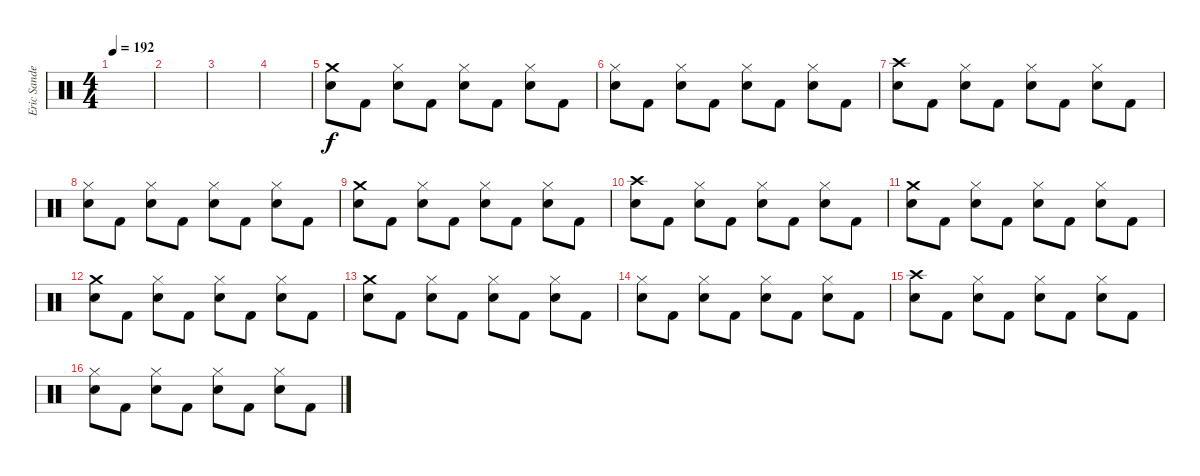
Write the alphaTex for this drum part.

\track ("Eric Sanden" "Eric Sande") {instrument percussion}
\staff {score}
\articulation defaults
\ts (4 4)
\tempo 192
\clef neutral
\ks c
|
|
|
|
("Crash medium (hit)" "Snare (hit) 2").8 "Kick (hit) 2".8 ("Hi-Hat (closed)" "Snare (hit) 2").8 "Kick (hit) 2".8 ("Hi-Hat (closed)" "Snare (hit) 2").8 "Kick (hit) 2".8 ("Hi-Hat (closed)" "Snare (hit) 2").8 "Kick (hit) 2".8 |
("Hi-Hat (closed)" "Snare (hit) 2").8 "Kick (hit) 2".8 ("Hi-Hat (closed)" "Snare (hit) 2").8 "Kick (hit) 2".8 ("Hi-Hat (closed)" "Snare (hit) 2").8 "Kick (hit) 2".8 ("Hi-Hat (closed)" "Snare (hit) 2").8 "Kick (hit) 2".8 |
("Crash high (hit)" "Snare (hit) 2").8 "Kick (hit) 2".8 ("Hi-Hat (closed)" "Snare (hit) 2").8 "Kick (hit) 2".8 ("Hi-Hat (closed)" "Snare (hit) 2").8 "Kick (hit) 2".8 ("Hi-Hat (closed)" "Snare (hit) 2").8 "Kick (hit) 2".8 |
("Hi-Hat (closed)" "Snare (hit) 2").8 "Kick (hit) 2".8 ("Hi-Hat (closed)" "Snare (hit) 2").8 "Kick (hit) 2".8 ("Hi-Hat (closed)" "Snare (hit) 2").8 "Kick (hit) 2".8 ("Hi-Hat (closed)" "Snare (hit) 2").8 "Kick (hit) 2".8 |
("Crash medium (hit)" "Snare (hit) 2").8 "Kick (hit) 2".8 ("Hi-Hat (closed)" "Snare (hit) 2").8 "Kick (hit) 2".8 ("Hi-Hat (closed)" "Snare (hit) 2").8 "Kick (hit) 2".8 ("Hi-Hat (closed)" "Snare (hit) 2").8 "Kick (hit) 2".8 |
("Crash high (hit)" "Snare (hit) 2").8 "Kick (hit) 2".8 ("Hi-Hat (closed)" "Snare (hit) 2").8 "Kick (hit) 2".8 ("Hi-Hat (closed)" "Snare (hit) 2").8 "Kick (hit) 2".8 ("Hi-Hat (closed)" "Snare (hit) 2").8 "Kick (hit) 2".8 |
("Crash medium (hit)" "Snare (hit) 2").8 "Kick (hit) 2".8 ("Hi-Hat (closed)" "Snare (hit) 2").8 "Kick (hit) 2".8 ("Hi-Hat (closed)" "Snare (hit) 2").8 "Kick (hit) 2".8 ("Hi-Hat (closed)" "Snare (hit) 2").8 "Kick (hit) 2".8 |
("Crash medium (hit)" "Snare (hit) 2").8 "Kick (hit) 2".8 ("Hi-Hat (closed)" "Snare (hit) 2").8 "Kick (hit) 2".8 ("Hi-Hat (closed)" "Snare (hit) 2").8 "Kick (hit) 2".8 ("Hi-Hat (closed)" "Snare (hit) 2").8 "Kick (hit) 2".8 |
("Crash medium (hit)" "Snare (hit) 2").8 "Kick (hit) 2".8 ("Hi-Hat (closed)" "Snare (hit) 2").8 "Kick (hit) 2".8 ("Hi-Hat (closed)" "Snare (hit) 2").8 "Kick (hit) 2".8 ("Hi-Hat (closed)" "Snare (hit) 2").8 "Kick (hit) 2".8 |
("Hi-Hat (closed)" "Snare (hit) 2").8 "Kick (hit) 2".8 ("Hi-Hat (closed)" "Snare (hit) 2").8 "Kick (hit) 2".8 ("Hi-Hat (closed)" "Snare (hit) 2").8 "Kick (hit) 2".8 ("Hi-Hat (closed)" "Snare (hit) 2").8 "Kick (hit) 2".8 |
("Crash high (hit)" "Snare (hit) 2").8 "Kick (hit) 2".8 ("Hi-Hat (closed)" "Snare (hit) 2").8 "Kick (hit) 2".8 ("Hi-Hat (closed)" "Snare (hit) 2").8 "Kick (hit) 2".8 ("Hi-Hat (closed)" "Snare (hit) 2").8 "Kick (hit) 2".8 |
("Hi-Hat (closed)" "Snare (hit) 2").8 "Kick (hit) 2".8 ("Hi-Hat (closed)" "Snare (hit) 2").8 "Kick (hit) 2".8 ("Hi-Hat (closed)" "Snare (hit) 2").8 "Kick (hit) 2".8 ("Hi-Hat (closed)" "Snare (hit) 2").8 "Kick (hit) 2".8
